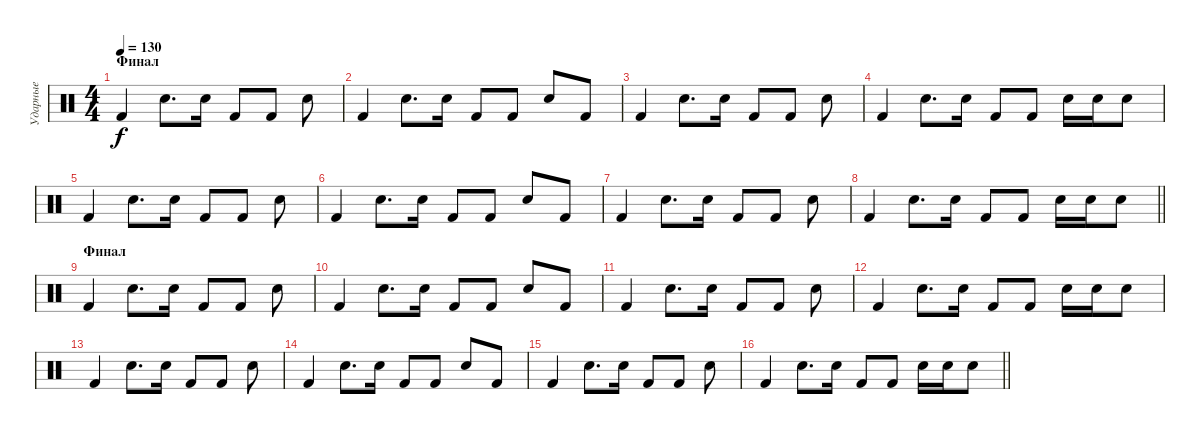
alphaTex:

\track ("Ударные" "Ударные") {instrument percussion}
\staff {score}
\articulation defaults
\ts (4 4)
\section ("" "Финал")
\tempo 130
\clef neutral
\ks c "Kick (hit) 2".4{dy f} "Electric Snare (hit)".8{d} "Electric Snare (hit)".16 "Kick (hit) 2".8 "Kick (hit) 2".8 "Electric Snare (hit)".8
|
"Kick (hit) 2".4 "Electric Snare (hit)".8{d} "Electric Snare (hit)".16 "Kick (hit) 2".8 "Kick (hit) 2".8 "Electric Snare (hit)".8 "Kick (hit) 2".8 |
"Kick (hit) 2".4 "Electric Snare (hit)".8{d} "Electric Snare (hit)".16 "Kick (hit) 2".8 "Kick (hit) 2".8 "Electric Snare (hit)".8 |
"Kick (hit) 2".4 "Electric Snare (hit)".8{d} "Electric Snare (hit)".16 "Kick (hit) 2".8 "Kick (hit) 2".8 "Electric Snare (hit)".16 "Electric Snare (hit)".16 "Electric Snare (hit)".8 |
"Kick (hit) 2".4 "Electric Snare (hit)".8{d} "Electric Snare (hit)".16 "Kick (hit) 2".8 "Kick (hit) 2".8 "Electric Snare (hit)".8 |
"Kick (hit) 2".4 "Electric Snare (hit)".8{d} "Electric Snare (hit)".16 "Kick (hit) 2".8 "Kick (hit) 2".8 "Electric Snare (hit)".8 "Kick (hit) 2".8 |
"Kick (hit) 2".4 "Electric Snare (hit)".8{d} "Electric Snare (hit)".16 "Kick (hit) 2".8 "Kick (hit) 2".8 "Electric Snare (hit)".8 |
\barLineRight lightlight "Kick (hit) 2".4 "Electric Snare (hit)".8{d} "Electric Snare (hit)".16 "Kick (hit) 2".8 "Kick (hit) 2".8 "Electric Snare (hit)".16 "Electric Snare (hit)".16 "Electric Snare (hit)".8
|
\section ("" "Финал")
"Kick (hit) 2".4 "Electric Snare (hit)".8{d} "Electric Snare (hit)".16 "Kick (hit) 2".8 "Kick (hit) 2".8 "Electric Snare (hit)".8 |
"Kick (hit) 2".4 "Electric Snare (hit)".8{d} "Electric Snare (hit)".16 "Kick (hit) 2".8 "Kick (hit) 2".8 "Electric Snare (hit)".8 "Kick (hit) 2".8 |
"Kick (hit) 2".4 "Electric Snare (hit)".8{d} "Electric Snare (hit)".16 "Kick (hit) 2".8 "Kick (hit) 2".8 "Electric Snare (hit)".8 |
"Kick (hit) 2".4 "Electric Snare (hit)".8{d} "Electric Snare (hit)".16 "Kick (hit) 2".8 "Kick (hit) 2".8 "Electric Snare (hit)".16 "Electric Snare (hit)".16 "Electric Snare (hit)".8 |
"Kick (hit) 2".4 "Electric Snare (hit)".8{d} "Electric Snare (hit)".16 "Kick (hit) 2".8 "Kick (hit) 2".8 "Electric Snare (hit)".8 |
"Kick (hit) 2".4 "Electric Snare (hit)".8{d} "Electric Snare (hit)".16 "Kick (hit) 2".8 "Kick (hit) 2".8 "Electric Snare (hit)".8 "Kick (hit) 2".8 |
"Kick (hit) 2".4 "Electric Snare (hit)".8{d} "Electric Snare (hit)".16 "Kick (hit) 2".8 "Kick (hit) 2".8 "Electric Snare (hit)".8 |
\barLineRight lightlight "Kick (hit) 2".4 "Electric Snare (hit)".8{d} "Electric Snare (hit)".16 "Kick (hit) 2".8 "Kick (hit) 2".8 "Electric Snare (hit)".16 "Electric Snare (hit)".16 "Electric Snare (hit)".8
